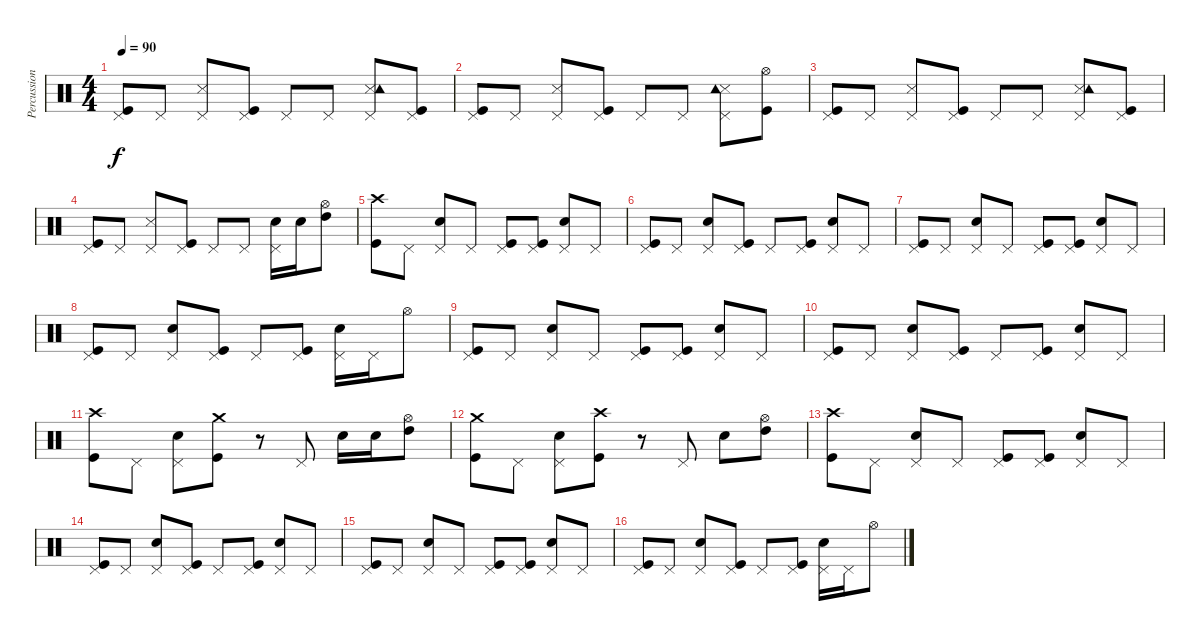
\track ("Percussions" "Percussion") {instrument percussion}
\staff {score}
\articulation defaults
\ts (4 4)
\tempo 90
\clef neutral
\ks c
("Pedal Hi-Hat (hit)" "Kick (hit)").8{dy f} "Pedal Hi-Hat (hit)".8 ("Pedal Hi-Hat (hit)" "Snare (side stick) 3").8 ("Pedal Hi-Hat (hit)" "Kick (hit)").8 "Pedal Hi-Hat (hit)".8 "Pedal Hi-Hat (hit)".8 ("Pedal Hi-Hat (hit)" "Snare (side stick) 3" "Tambourine (hit)").8 ("Pedal Hi-Hat (hit)" "Kick (hit)").8 |
("Pedal Hi-Hat (hit)" "Kick (hit)").8 "Pedal Hi-Hat (hit)".8 ("Pedal Hi-Hat (hit)" "Snare (side stick) 3").8 ("Pedal Hi-Hat (hit)" "Kick (hit)").8 "Pedal Hi-Hat (hit)".8 "Pedal Hi-Hat (hit)".8 ("Pedal Hi-Hat (hit)" "Snare (side stick) 3" "Tambourine (hit)").8 ("Hi-Hat (open)" "Kick (hit)").8 |
("Pedal Hi-Hat (hit)" "Kick (hit)").8 "Pedal Hi-Hat (hit)".8 ("Pedal Hi-Hat (hit)" "Snare (side stick) 3").8 ("Pedal Hi-Hat (hit)" "Kick (hit)").8 "Pedal Hi-Hat (hit)".8 "Pedal Hi-Hat (hit)".8 ("Pedal Hi-Hat (hit)" "Snare (side stick) 3" "Tambourine (hit)").8 ("Pedal Hi-Hat (hit)" "Kick (hit)").8 |
("Pedal Hi-Hat (hit)" "Kick (hit)").8 "Pedal Hi-Hat (hit)".8 ("Pedal Hi-Hat (hit)" "Snare (side stick) 3").8 ("Pedal Hi-Hat (hit)" "Kick (hit)").8 "Pedal Hi-Hat (hit)".8 "Pedal Hi-Hat (hit)".8 ("Pedal Hi-Hat (hit)" "Snare (hit) 2").16 "Snare (hit) 2".16 ("Hi-Hat (open)" "High Tom (hit)").8 |
("Crash high (hit)" "Kick (hit)").8 "Pedal Hi-Hat (hit)".8 ("Pedal Hi-Hat (hit)" "Snare (hit) 2").8 "Pedal Hi-Hat (hit)".8 ("Pedal Hi-Hat (hit)" "Kick (hit)").8 ("Pedal Hi-Hat (hit)" "Kick (hit)").8 ("Pedal Hi-Hat (hit)" "Snare (hit) 2").8 "Pedal Hi-Hat (hit)".8 |
("Pedal Hi-Hat (hit)" "Kick (hit)").8 "Pedal Hi-Hat (hit)".8 ("Pedal Hi-Hat (hit)" "Snare (hit) 2").8 ("Pedal Hi-Hat (hit)" "Kick (hit)").8 "Pedal Hi-Hat (hit)".8 ("Pedal Hi-Hat (hit)" "Kick (hit)").8 ("Pedal Hi-Hat (hit)" "Snare (hit) 2").8 "Pedal Hi-Hat (hit)".8 |
("Pedal Hi-Hat (hit)" "Kick (hit)").8 "Pedal Hi-Hat (hit)".8 ("Pedal Hi-Hat (hit)" "Snare (hit) 2").8 "Pedal Hi-Hat (hit)".8 ("Pedal Hi-Hat (hit)" "Kick (hit)").8 ("Pedal Hi-Hat (hit)" "Kick (hit)").8 ("Pedal Hi-Hat (hit)" "Snare (hit) 2").8 "Pedal Hi-Hat (hit)".8 |
("Pedal Hi-Hat (hit)" "Kick (hit)").8 "Pedal Hi-Hat (hit)".8 ("Pedal Hi-Hat (hit)" "Snare (hit) 2").8 ("Pedal Hi-Hat (hit)" "Kick (hit)").8 "Pedal Hi-Hat (hit)".8 ("Pedal Hi-Hat (hit)" "Kick (hit)").8 ("Pedal Hi-Hat (hit)" "Snare (hit) 2").16 "Pedal Hi-Hat (hit)".16 "Hi-Hat (open)".8 |
("Pedal Hi-Hat (hit)" "Kick (hit)").8 "Pedal Hi-Hat (hit)".8 ("Pedal Hi-Hat (hit)" "Snare (hit) 2").8 "Pedal Hi-Hat (hit)".8 ("Pedal Hi-Hat (hit)" "Kick (hit)").8 ("Pedal Hi-Hat (hit)" "Kick (hit)").8 ("Pedal Hi-Hat (hit)" "Snare (hit) 2").8 "Pedal Hi-Hat (hit)".8 |
("Pedal Hi-Hat (hit)" "Kick (hit)").8 "Pedal Hi-Hat (hit)".8 ("Pedal Hi-Hat (hit)" "Snare (hit) 2").8 ("Pedal Hi-Hat (hit)" "Kick (hit)").8 "Pedal Hi-Hat (hit)".8 ("Pedal Hi-Hat (hit)" "Kick (hit)").8 ("Pedal Hi-Hat (hit)" "Snare (hit) 2").8 "Pedal Hi-Hat (hit)".8 |
("Crash high (hit)" "Kick (hit)").8 "Pedal Hi-Hat (hit)".8 ("Pedal Hi-Hat (hit)" "Snare (hit) 2").8 ("Crash medium (hit)" "Kick (hit)").8 r.8 "Pedal Hi-Hat (hit)".8 "Snare (hit) 2".16 "Snare (hit) 2".16 ("Hi-Hat (open)" "High Tom (hit)").8 |
("Crash medium (hit)" "Kick (hit)").8 "Pedal Hi-Hat (hit)".8 ("Pedal Hi-Hat (hit)" "Snare (hit) 2").8 ("Crash high (hit)" "Kick (hit)").8 r.8 "Pedal Hi-Hat (hit)".8 "Snare (hit) 2".8 ("Hi-Hat (open)" "High Tom (hit)").8 |
("Crash high (hit)" "Kick (hit)").8 "Pedal Hi-Hat (hit)".8 ("Pedal Hi-Hat (hit)" "Snare (hit) 2").8 "Pedal Hi-Hat (hit)".8 ("Pedal Hi-Hat (hit)" "Kick (hit)").8 ("Pedal Hi-Hat (hit)" "Kick (hit)").8 ("Pedal Hi-Hat (hit)" "Snare (hit) 2").8 "Pedal Hi-Hat (hit)".8 |
("Pedal Hi-Hat (hit)" "Kick (hit)").8 "Pedal Hi-Hat (hit)".8 ("Pedal Hi-Hat (hit)" "Snare (hit) 2").8 ("Pedal Hi-Hat (hit)" "Kick (hit)").8 "Pedal Hi-Hat (hit)".8 ("Pedal Hi-Hat (hit)" "Kick (hit)").8 ("Pedal Hi-Hat (hit)" "Snare (hit) 2").8 "Pedal Hi-Hat (hit)".8 |
("Pedal Hi-Hat (hit)" "Kick (hit)").8 "Pedal Hi-Hat (hit)".8 ("Pedal Hi-Hat (hit)" "Snare (hit) 2").8 "Pedal Hi-Hat (hit)".8 ("Pedal Hi-Hat (hit)" "Kick (hit)").8 ("Pedal Hi-Hat (hit)" "Kick (hit)").8 ("Pedal Hi-Hat (hit)" "Snare (hit) 2").8 "Pedal Hi-Hat (hit)".8 |
("Pedal Hi-Hat (hit)" "Kick (hit)").8 "Pedal Hi-Hat (hit)".8 ("Pedal Hi-Hat (hit)" "Snare (hit) 2").8 ("Pedal Hi-Hat (hit)" "Kick (hit)").8 "Pedal Hi-Hat (hit)".8 ("Pedal Hi-Hat (hit)" "Kick (hit)").8 ("Pedal Hi-Hat (hit)" "Snare (hit) 2").16 "Pedal Hi-Hat (hit)".16 "Hi-Hat (open)".8
